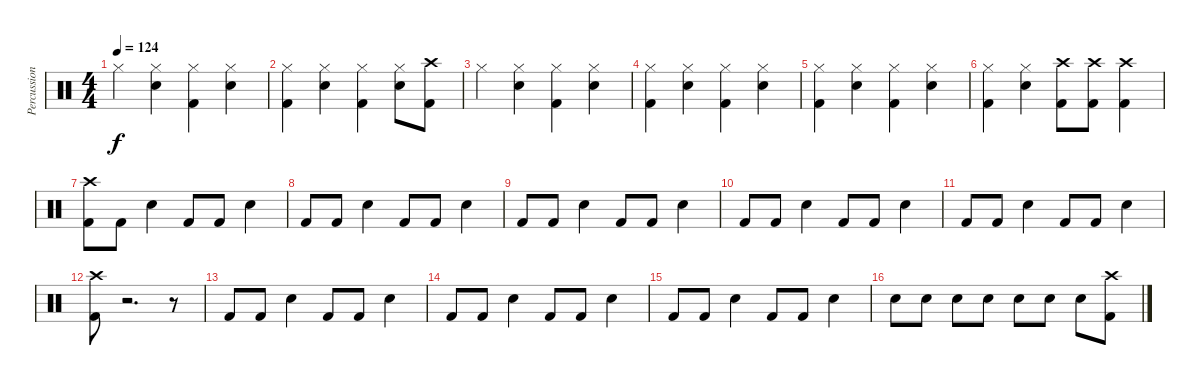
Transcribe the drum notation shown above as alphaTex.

\track ("Percussion" "Percussion") {instrument percussion}
\staff {score}
\articulation defaults
\ts (4 4)
\tempo 124
\clef neutral
\ks c "Hi-Hat (closed)".4{dy f}
("Hi-Hat (closed)" "Snare (hit) 2").4 ("Hi-Hat (closed)" "Kick (hit) 2").4 ("Hi-Hat (closed)" "Snare (hit) 2").4 |
("Hi-Hat (closed)" "Kick (hit) 2").4 ("Hi-Hat (closed)" "Snare (hit) 2").4 ("Hi-Hat (closed)" "Kick (hit) 2").4 ("Hi-Hat (closed)" "Snare (hit) 2").8 ("Crash high (hit)" "Kick (hit) 2").8 |
"Hi-Hat (closed)".4 ("Hi-Hat (closed)" "Snare (hit) 2").4 ("Hi-Hat (closed)" "Kick (hit) 2").4 ("Hi-Hat (closed)" "Snare (hit) 2").4 |
("Hi-Hat (closed)" "Kick (hit) 2").4 ("Hi-Hat (closed)" "Snare (hit) 2").4 ("Hi-Hat (closed)" "Kick (hit) 2").4 ("Hi-Hat (closed)" "Snare (hit) 2").4 |
("Hi-Hat (closed)" "Kick (hit) 2").4 ("Hi-Hat (closed)" "Snare (hit) 2").4 ("Hi-Hat (closed)" "Kick (hit) 2").4 ("Hi-Hat (closed)" "Snare (hit) 2").4 |
("Hi-Hat (closed)" "Kick (hit) 2").4 ("Hi-Hat (closed)" "Snare (hit) 2").4 ("Crash high (hit)" "Kick (hit) 2").8 ("Crash high (hit)" "Kick (hit) 2").8 ("Crash high (hit)" "Kick (hit) 2").4 |
("Crash high (hit)" "Kick (hit) 2").8 "Kick (hit) 2".8 "Snare (hit) 2".4 "Kick (hit) 2".8 "Kick (hit) 2".8 "Snare (hit) 2".4 |
"Kick (hit) 2".8 "Kick (hit) 2".8 "Snare (hit) 2".4 "Kick (hit) 2".8 "Kick (hit) 2".8 "Snare (hit) 2".4 |
"Kick (hit) 2".8 "Kick (hit) 2".8 "Snare (hit) 2".4 "Kick (hit) 2".8 "Kick (hit) 2".8 "Snare (hit) 2".4 |
"Kick (hit) 2".8 "Kick (hit) 2".8 "Snare (hit) 2".4 "Kick (hit) 2".8 "Kick (hit) 2".8 "Snare (hit) 2".4 |
"Kick (hit) 2".8 "Kick (hit) 2".8 "Snare (hit) 2".4 "Kick (hit) 2".8 "Kick (hit) 2".8 "Snare (hit) 2".4 |
("Crash high (hit)" "Kick (hit) 2").8 r.2{d} r.8 |
"Kick (hit) 2".8 "Kick (hit) 2".8 "Snare (hit) 2".4 "Kick (hit) 2".8 "Kick (hit) 2".8 "Snare (hit) 2".4 |
"Kick (hit) 2".8 "Kick (hit) 2".8 "Snare (hit) 2".4 "Kick (hit) 2".8 "Kick (hit) 2".8 "Snare (hit) 2".4 |
"Kick (hit) 2".8 "Kick (hit) 2".8 "Snare (hit) 2".4 "Kick (hit) 2".8 "Kick (hit) 2".8 "Snare (hit) 2".4 |
"Snare (hit) 2".8 "Snare (hit) 2".8 "Snare (hit) 2".8 "Snare (hit) 2".8 "Snare (hit) 2".8 "Snare (hit) 2".8 "Snare (hit) 2".8 ("Crash high (hit)" "Kick (hit) 2").8
